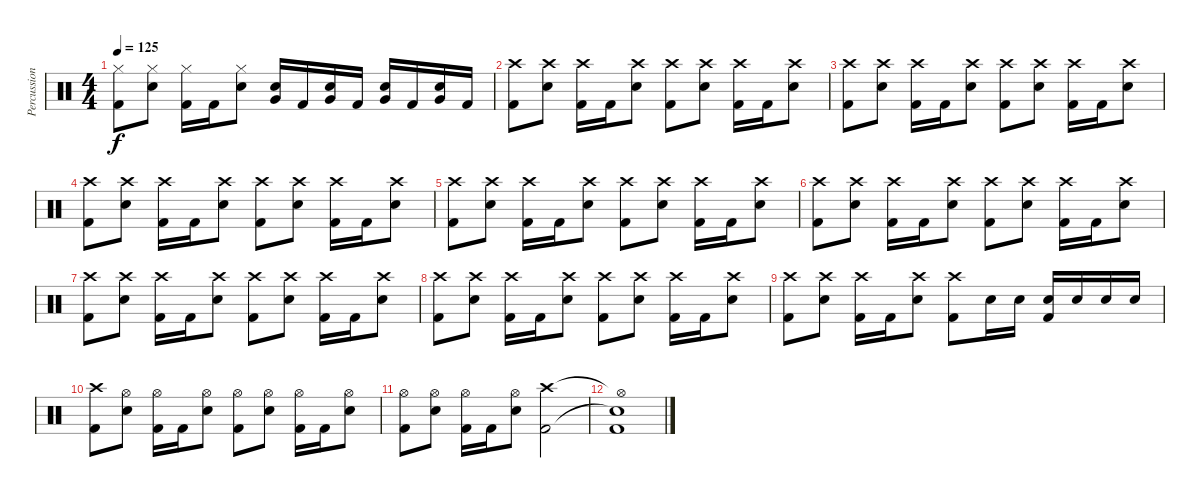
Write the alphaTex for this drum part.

\track ("Percussion" "Percussion") {instrument percussion}
\staff {score}
\articulation defaults
\ts (4 4)
\tempo 125
\clef neutral
\ks c
("Hi-Hat (closed)" "Kick (hit) 2").8{dy f} ("Hi-Hat (closed)" "Electric Snare (hit)").8 ("Hi-Hat (closed)" "Kick (hit) 2").16 "Kick (hit) 2".16 ("Hi-Hat (closed)" "Electric Snare (hit)").8 ("Electric Snare (hit)" "Very Low Tom (hit)").16 "Kick (hit) 2".16 ("Electric Snare (hit)" "Very Low Tom (hit)").16 "Kick (hit) 2".16 ("Electric Snare (hit)" "Very Low Tom (hit)").16 "Kick (hit) 2".16 ("Electric Snare (hit)" "Very Low Tom (hit)").16 "Kick (hit) 2".16 |
("Crash high (hit)" "Kick (hit) 2").8 ("Crash high (hit)" "Electric Snare (hit)").8 ("Crash high (hit)" "Kick (hit) 2").16 "Kick (hit) 2".16 ("Crash high (hit)" "Electric Snare (hit)").8 ("Crash high (hit)" "Kick (hit) 2").8 ("Crash high (hit)" "Electric Snare (hit)").8 ("Crash high (hit)" "Kick (hit) 2").16 "Kick (hit) 2".16 ("Crash high (hit)" "Electric Snare (hit)").8 |
("Crash high (hit)" "Kick (hit) 2").8 ("Crash high (hit)" "Electric Snare (hit)").8 ("Crash high (hit)" "Kick (hit) 2").16 "Kick (hit) 2".16 ("Crash high (hit)" "Electric Snare (hit)").8 ("Crash high (hit)" "Kick (hit) 2").8 ("Crash high (hit)" "Electric Snare (hit)").8 ("Crash high (hit)" "Kick (hit) 2").16 "Kick (hit) 2".16 ("Crash high (hit)" "Electric Snare (hit)").8 |
("Crash high (hit)" "Kick (hit) 2").8 ("Crash high (hit)" "Electric Snare (hit)").8 ("Crash high (hit)" "Kick (hit) 2").16 "Kick (hit) 2".16 ("Crash high (hit)" "Electric Snare (hit)").8 ("Crash high (hit)" "Kick (hit) 2").8 ("Crash high (hit)" "Electric Snare (hit)").8 ("Crash high (hit)" "Kick (hit) 2").16 "Kick (hit) 2".16 ("Crash high (hit)" "Electric Snare (hit)").8 |
("Crash high (hit)" "Kick (hit) 2").8 ("Crash high (hit)" "Electric Snare (hit)").8 ("Crash high (hit)" "Kick (hit) 2").16 "Kick (hit) 2".16 ("Crash high (hit)" "Electric Snare (hit)").8 ("Crash high (hit)" "Kick (hit) 2").8 ("Crash high (hit)" "Electric Snare (hit)").8 ("Crash high (hit)" "Kick (hit) 2").16 "Kick (hit) 2".16 ("Crash high (hit)" "Electric Snare (hit)").8 |
("Crash high (hit)" "Kick (hit) 2").8 ("Crash high (hit)" "Electric Snare (hit)").8 ("Crash high (hit)" "Kick (hit) 2").16 "Kick (hit) 2".16 ("Crash high (hit)" "Electric Snare (hit)").8 ("Crash high (hit)" "Kick (hit) 2").8 ("Crash high (hit)" "Electric Snare (hit)").8 ("Crash high (hit)" "Kick (hit) 2").16 "Kick (hit) 2".16 ("Crash high (hit)" "Electric Snare (hit)").8 |
("Crash high (hit)" "Kick (hit) 2").8 ("Crash high (hit)" "Electric Snare (hit)").8 ("Crash high (hit)" "Kick (hit) 2").16 "Kick (hit) 2".16 ("Crash high (hit)" "Electric Snare (hit)").8 ("Crash high (hit)" "Kick (hit) 2").8 ("Crash high (hit)" "Electric Snare (hit)").8 ("Crash high (hit)" "Kick (hit) 2").16 "Kick (hit) 2".16 ("Crash high (hit)" "Electric Snare (hit)").8 |
("Crash high (hit)" "Kick (hit) 2").8 ("Crash high (hit)" "Electric Snare (hit)").8 ("Crash high (hit)" "Kick (hit) 2").16 "Kick (hit) 2".16 ("Crash high (hit)" "Electric Snare (hit)").8 ("Crash high (hit)" "Kick (hit) 2").8 ("Crash high (hit)" "Electric Snare (hit)").8 ("Crash high (hit)" "Kick (hit) 2").16 "Kick (hit) 2".16 ("Crash high (hit)" "Electric Snare (hit)").8 |
("Crash high (hit)" "Kick (hit) 2").8 ("Crash high (hit)" "Electric Snare (hit)").8 ("Crash high (hit)" "Kick (hit) 2").16 "Kick (hit) 2".16 ("Crash high (hit)" "Electric Snare (hit)").8 ("Crash high (hit)" "Kick (hit) 2").8 "Electric Snare (hit)".16 "Electric Snare (hit)".16 ("Electric Snare (hit)" "Kick (hit) 2").16 "Electric Snare (hit)".16 "Electric Snare (hit)".16 "Electric Snare (hit)".16 |
("Crash high (hit)" "Kick (hit) 2").8 ("Hi-Hat (open)" "Electric Snare (hit)").8 ("Hi-Hat (open)" "Kick (hit) 2").16 "Kick (hit) 2".16 ("Hi-Hat (open)" "Electric Snare (hit)").8 ("Hi-Hat (open)" "Kick (hit) 2").8 ("Hi-Hat (open)" "Electric Snare (hit)").8 ("Hi-Hat (open)" "Kick (hit) 2").16 "Kick (hit) 2".16 ("Hi-Hat (open)" "Electric Snare (hit)").8 |
("Hi-Hat (open)" "Kick (hit) 2").8 ("Hi-Hat (open)" "Electric Snare (hit)").8 ("Hi-Hat (open)" "Kick (hit) 2").16 "Kick (hit) 2".16 ("Hi-Hat (open)" "Electric Snare (hit)").8 ("Crash high (hit)" "Kick (hit) 2").2 |
("Hi-Hat (open)"{t} "Snare (hit) 2"{t} "Kick (hit) 2").1
